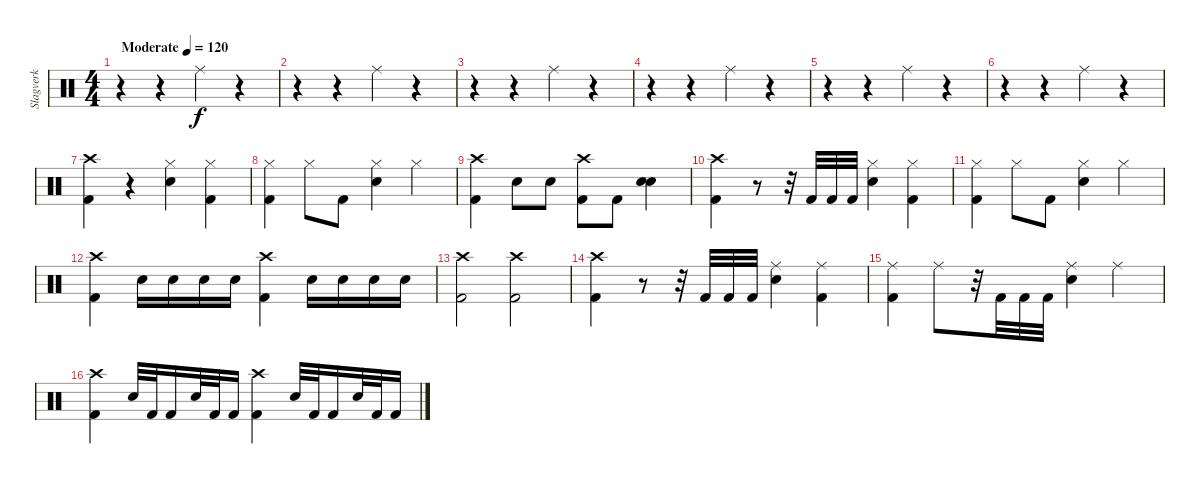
\track ("Slagverk" "Slagverk") {instrument percussion}
\staff {score}
\articulation defaults
\ts (4 4)
\tempo (120 "Moderate")
\clef neutral
\ks c
r.4{dy f} r.4 "Ride (middle)".4 r.4 |
r.4 r.4 "Ride (middle)".4 r.4 |
r.4 r.4 "Ride (middle)".4 r.4 |
r.4 r.4 "Ride (middle)".4 r.4 |
r.4 r.4 "Ride (middle)".4 r.4 |
r.4 r.4 "Ride (middle)".4 r.4 |
("Crash high (hit)" "Kick (hit) 2").4 r.4 ("Hi-Hat (closed)" "Electric Snare (hit)").4 ("Hi-Hat (closed)" "Kick (hit) 2").4 |
("Hi-Hat (closed)" "Kick (hit) 2").4 "Hi-Hat (closed)".8 "Kick (hit) 2".8 ("Hi-Hat (closed)" "Electric Snare (hit)").4 "Hi-Hat (closed)".4 |
("Crash high (hit)" "Kick (hit) 2").4 "Electric Snare (hit)".8 "Electric Snare (hit)".8 ("Crash high (hit)" "Kick (hit) 2").8 "Kick (hit) 2".8 ("Electric Snare (hit)" "Electric Snare (hit)").4 |
("Crash high (hit)" "Kick (hit) 2").4 r.8 r.32 "Kick (hit) 2".32 "Kick (hit) 2".32 "Kick (hit) 2".32 ("Hi-Hat (closed)" "Electric Snare (hit)").4 ("Hi-Hat (closed)" "Kick (hit) 2").4 |
("Hi-Hat (closed)" "Kick (hit) 2").4 "Hi-Hat (closed)".8 "Kick (hit) 2".8 ("Hi-Hat (closed)" "Electric Snare (hit)").4 "Hi-Hat (closed)".4 |
("Crash high (hit)" "Kick (hit) 2").4 "Electric Snare (hit)".16 "Electric Snare (hit)".16 "Electric Snare (hit)".16 "Electric Snare (hit)".16 ("Crash high (hit)" "Kick (hit) 2").4 "Electric Snare (hit)".16 "Electric Snare (hit)".16 "Electric Snare (hit)".16 "Electric Snare (hit)".16 |
("Crash high (hit)" "Kick (hit) 2").2 ("Crash high (hit)" "Kick (hit) 2").2 |
("Crash high (hit)" "Kick (hit) 2").4 r.8 r.32 "Kick (hit) 2".32 "Kick (hit) 2".32 "Kick (hit) 2".32 ("Ride (middle)" "Electric Snare (hit)").4 ("Ride (middle)" "Kick (hit) 2").4 |
("Ride (middle)" "Kick (hit) 2").4 "Ride (middle)".8 r.32 "Kick (hit) 2".32 "Kick (hit) 2".32 "Kick (hit) 2".32 ("Ride (middle)" "Electric Snare (hit)").4 "Ride (middle)".4 |
("Crash high (hit)" "Kick (hit) 2").4 "Electric Snare (hit)".32 "Kick (hit) 2".32 "Kick (hit) 2".16 "Electric Snare (hit)".32 "Kick (hit) 2".32 "Kick (hit) 2".16 ("Crash high (hit)" "Kick (hit) 2").4 "Electric Snare (hit)".32 "Kick (hit) 2".32 "Kick (hit) 2".16 "Electric Snare (hit)".32 "Kick (hit) 2".32 "Kick (hit) 2".16
